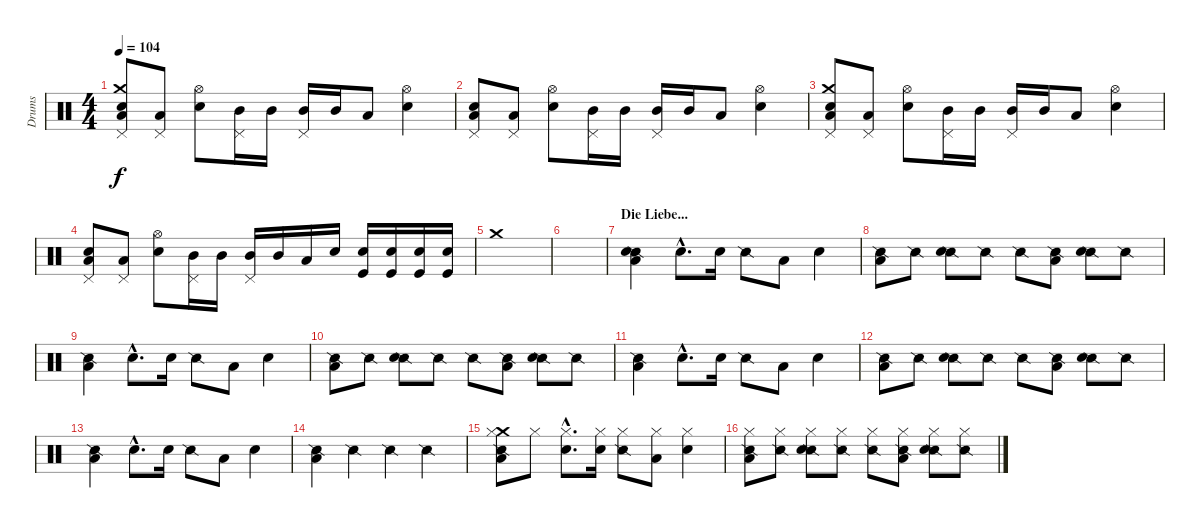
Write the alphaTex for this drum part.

\track ("Drums" "Drums") {instrument percussion}
\staff {score}
\articulation defaults
\ts (4 4)
\tempo 104
\clef neutral
\ks c
("Snare (hit) 2" "Crash medium (hit)" "Pedal Hi-Hat (hit)" "Low Floor Tom (hit)").8{dy f} ("Pedal Hi-Hat (hit)" "Low Floor Tom (hit)").8 ("Snare (hit) 2" "Hi-Hat (open)").8 ("Mid Tom (hit)" "Pedal Hi-Hat (hit)").16 "Mid Tom (hit)".16 ("Mid Tom (hit)" "Pedal Hi-Hat (hit)").16 "Mid Tom (hit)".16 "Low Floor Tom (hit)".8 ("Snare (hit) 2" "Hi-Hat (open)").4 |
("Snare (hit) 2" "Pedal Hi-Hat (hit)" "Low Floor Tom (hit)").8 ("Pedal Hi-Hat (hit)" "Low Floor Tom (hit)").8 ("Snare (hit) 2" "Hi-Hat (open)").8 ("Mid Tom (hit)" "Pedal Hi-Hat (hit)").16 "Mid Tom (hit)".16 ("Mid Tom (hit)" "Pedal Hi-Hat (hit)").16 "Mid Tom (hit)".16 "Low Floor Tom (hit)".8 ("Snare (hit) 2" "Hi-Hat (open)").4 |
("Snare (hit) 2" "Crash medium (hit)" "Pedal Hi-Hat (hit)" "Low Floor Tom (hit)").8 ("Pedal Hi-Hat (hit)" "Low Floor Tom (hit)").8 ("Snare (hit) 2" "Hi-Hat (open)").8 ("Mid Tom (hit)" "Pedal Hi-Hat (hit)").16 "Mid Tom (hit)".16 ("Mid Tom (hit)" "Pedal Hi-Hat (hit)").16 "Mid Tom (hit)".16 "Low Floor Tom (hit)".8 ("Snare (hit) 2" "Hi-Hat (open)").4 |
("Snare (hit) 2" "Pedal Hi-Hat (hit)" "Low Floor Tom (hit)").8 ("Pedal Hi-Hat (hit)" "Low Floor Tom (hit)").8 ("Snare (hit) 2" "Hi-Hat (open)").8 ("Mid Tom (hit)" "Pedal Hi-Hat (hit)").16 "Mid Tom (hit)".16 ("Mid Tom (hit)" "Pedal Hi-Hat (hit)").16 "Mid Tom (hit)".16 "Low Floor Tom (hit)".16 "Snare (hit) 2".16 ("Snare (hit) 2" "Kick (hit)").16 ("Snare (hit) 2" "Kick (hit)").16 ("Snare (hit) 2" "Kick (hit)").16 ("Snare (hit) 2" "Kick (hit)").16 |
"Crash medium (hit)".1 |
|
\section ("" "Die Liebe...")
("Snare (side stick) 2" "Snare (hit) 2" "Low Floor Tom (hit)").4 "Snare (hit) 2"{hac}.8{d} "Snare (hit) 2".16 "Snare (side stick) 2".8 "Low Floor Tom (hit)".8 "Snare (hit) 2".4 |
("Snare (side stick) 2" "Low Floor Tom (hit)").8 "Snare (side stick) 2".8 ("Snare (side stick) 2" "Snare (hit) 2").8 "Snare (side stick) 2".8 "Snare (side stick) 2".8 ("Snare (side stick) 2" "Low Floor Tom (hit)").8 ("Snare (side stick) 2" "Snare (hit) 2").8 "Snare (side stick) 2".8 |
("Snare (side stick) 2" "Low Floor Tom (hit)").4 "Snare (hit) 2"{hac}.8{d} "Snare (hit) 2".16 "Snare (side stick) 2".8 "Low Floor Tom (hit)".8 "Snare (hit) 2".4 |
("Snare (side stick) 2" "Low Floor Tom (hit)").8 "Snare (side stick) 2".8 ("Snare (side stick) 2" "Snare (hit) 2").8 "Snare (side stick) 2".8 "Snare (side stick) 2".8 ("Snare (side stick) 2" "Low Floor Tom (hit)").8 ("Snare (side stick) 2" "Snare (hit) 2").8 "Snare (side stick) 2".8 |
("Snare (side stick) 2" "Low Floor Tom (hit)").4 "Snare (hit) 2"{hac}.8{d} "Snare (hit) 2".16 "Snare (side stick) 2".8 "Low Floor Tom (hit)".8 "Snare (hit) 2".4 |
("Snare (side stick) 2" "Low Floor Tom (hit)").8 "Snare (side stick) 2".8 ("Snare (side stick) 2" "Snare (hit) 2").8 "Snare (side stick) 2".8 "Snare (side stick) 2".8 ("Snare (side stick) 2" "Low Floor Tom (hit)").8 ("Snare (side stick) 2" "Snare (hit) 2").8 "Snare (side stick) 2".8 |
("Snare (side stick) 2" "Low Floor Tom (hit)").4 "Snare (hit) 2"{hac}.8{d} "Snare (hit) 2".16 "Snare (side stick) 2".8 "Low Floor Tom (hit)".8 "Snare (hit) 2".4 |
("Snare (side stick) 2" "Low Floor Tom (hit)").4 "Snare (side stick) 2".4 "Snare (side stick) 2".4 "Snare (side stick) 2".4 |
("Snare (side stick) 2" "Crash medium (hit)" "Hi-Hat (closed)" "Low Floor Tom (hit)").8 "Hi-Hat (closed)".8 ("Snare (hit) 2"{hac} "Hi-Hat (closed)"{hac}).8{d} ("Snare (hit) 2" "Hi-Hat (closed)").16 ("Snare (side stick) 2" "Hi-Hat (closed)").8 ("Hi-Hat (closed)" "Low Floor Tom (hit)").8 ("Snare (hit) 2" "Hi-Hat (closed)").4 |
("Snare (side stick) 2" "Hi-Hat (closed)" "Low Floor Tom (hit)").8 ("Snare (side stick) 2" "Hi-Hat (closed)").8 ("Snare (side stick) 2" "Snare (hit) 2" "Hi-Hat (closed)").8 ("Snare (side stick) 2" "Hi-Hat (closed)").8 ("Snare (side stick) 2" "Hi-Hat (closed)").8 ("Snare (side stick) 2" "Hi-Hat (closed)" "Low Floor Tom (hit)").8 ("Snare (side stick) 2" "Snare (hit) 2" "Hi-Hat (closed)").8 ("Snare (side stick) 2" "Hi-Hat (closed)").8
